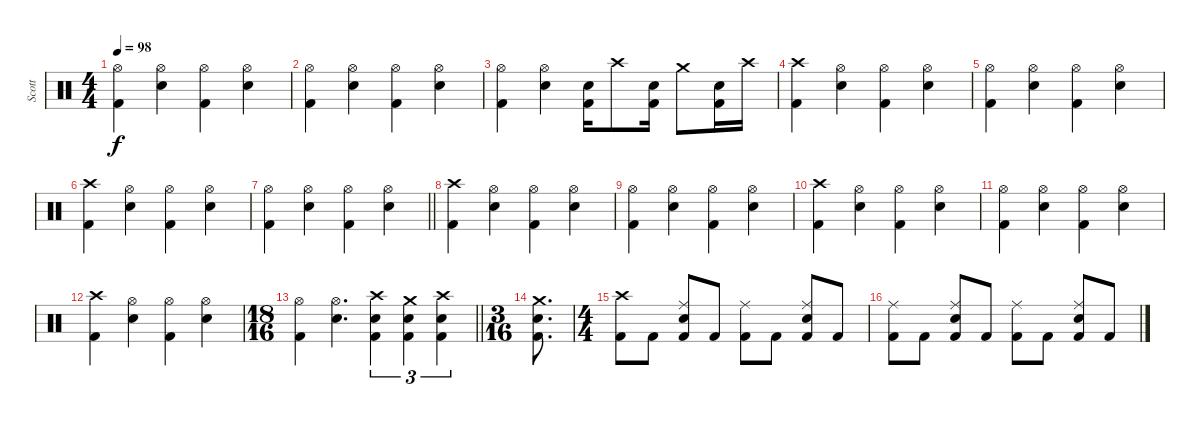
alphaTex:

\track ("Scott" "Scott") {instrument percussion}
\staff {score}
\articulation defaults
\ts (4 4)
\tempo 98
\clef neutral
\ks c
("Hi-Hat (open)" "Kick (hit) 2").4{dy f} ("Hi-Hat (open)" "Snare (hit) 2").4 ("Hi-Hat (open)" "Kick (hit) 2").4 ("Hi-Hat (open)" "Snare (hit) 2").4 |
("Hi-Hat (open)" "Kick (hit) 2").4 ("Hi-Hat (open)" "Snare (hit) 2").4 ("Hi-Hat (open)" "Kick (hit) 2").4 ("Hi-Hat (open)" "Snare (hit) 2").4 |
("Hi-Hat (open)" "Kick (hit) 2").4 ("Hi-Hat (open)" "Snare (hit) 2").4 ("Snare (hit) 2" "Kick (hit) 2").16 "Crash high (hit)".8 ("Snare (hit) 2" "Kick (hit) 2").16 "Crash medium (hit)".8 ("Snare (hit) 2" "Kick (hit) 2").16 "Crash high (hit)".16 |
("Crash high (hit)" "Kick (hit) 2").4 ("Hi-Hat (open)" "Snare (hit) 2").4 ("Hi-Hat (open)" "Kick (hit) 2").4 ("Hi-Hat (open)" "Snare (hit) 2").4 |
("Hi-Hat (open)" "Kick (hit) 2").4 ("Hi-Hat (open)" "Snare (hit) 2").4 ("Hi-Hat (open)" "Kick (hit) 2").4 ("Hi-Hat (open)" "Snare (hit) 2").4 |
("Crash high (hit)" "Kick (hit) 2").4 ("Hi-Hat (open)" "Snare (hit) 2").4 ("Hi-Hat (open)" "Kick (hit) 2").4 ("Hi-Hat (open)" "Snare (hit) 2").4 |
\barLineRight lightlight
("Hi-Hat (open)" "Kick (hit) 2").4 ("Hi-Hat (open)" "Snare (hit) 2").4 ("Hi-Hat (open)" "Kick (hit) 2").4 ("Hi-Hat (open)" "Snare (hit) 2").4 |
("Crash high (hit)" "Kick (hit) 2").4 ("Hi-Hat (open)" "Snare (hit) 2").4 ("Hi-Hat (open)" "Kick (hit) 2").4 ("Hi-Hat (open)" "Snare (hit) 2").4 |
("Hi-Hat (open)" "Kick (hit) 2").4 ("Hi-Hat (open)" "Snare (hit) 2").4 ("Hi-Hat (open)" "Kick (hit) 2").4 ("Hi-Hat (open)" "Snare (hit) 2").4 |
("Crash high (hit)" "Kick (hit) 2").4 ("Hi-Hat (open)" "Snare (hit) 2").4 ("Hi-Hat (open)" "Kick (hit) 2").4 ("Hi-Hat (open)" "Snare (hit) 2").4 |
("Hi-Hat (open)" "Kick (hit) 2").4 ("Hi-Hat (open)" "Snare (hit) 2").4 ("Hi-Hat (open)" "Kick (hit) 2").4 ("Hi-Hat (open)" "Snare (hit) 2").4 |
("Crash high (hit)" "Kick (hit) 2").4 ("Hi-Hat (open)" "Snare (hit) 2").4 ("Hi-Hat (open)" "Kick (hit) 2").4 ("Hi-Hat (open)" "Snare (hit) 2").4 |
\ts (18 16)
\barLineRight lightlight
("Hi-Hat (open)" "Kick (hit) 2").4 ("Hi-Hat (open)" "Snare (hit) 2").4{d} ("Crash high (hit)" "Snare (hit) 2" "Kick (hit) 2").4{tu (3 2)} ("Crash medium (hit)" "Snare (hit) 2" "Kick (hit) 2").4{tu (3 2)} ("Crash high (hit)" "Snare (hit) 2" "Kick (hit) 2").4{tu (3 2)} |
\ts (3 16)
("Crash medium (hit)" "Snare (hit) 2" "Kick (hit) 2").8{d} |
\ts (4 4)
("Crash high (hit)" "Kick (hit) 2").8 "Kick (hit) 2".8 ("Ride (middle)" "Electric Snare (hit)" "Kick (hit) 2").8 "Kick (hit) 2".8 ("Ride (middle)" "Kick (hit) 2").8 "Kick (hit) 2".8 ("Ride (middle)" "Electric Snare (hit)" "Kick (hit) 2").8 "Kick (hit) 2".8 |
("Ride (middle)" "Kick (hit) 2").8 "Kick (hit) 2".8 ("Ride (middle)" "Electric Snare (hit)" "Kick (hit) 2").8 "Kick (hit) 2".8 ("Ride (middle)" "Kick (hit) 2").8 "Kick (hit) 2".8 ("Ride (middle)" "Electric Snare (hit)" "Kick (hit) 2").8 "Kick (hit) 2".8
